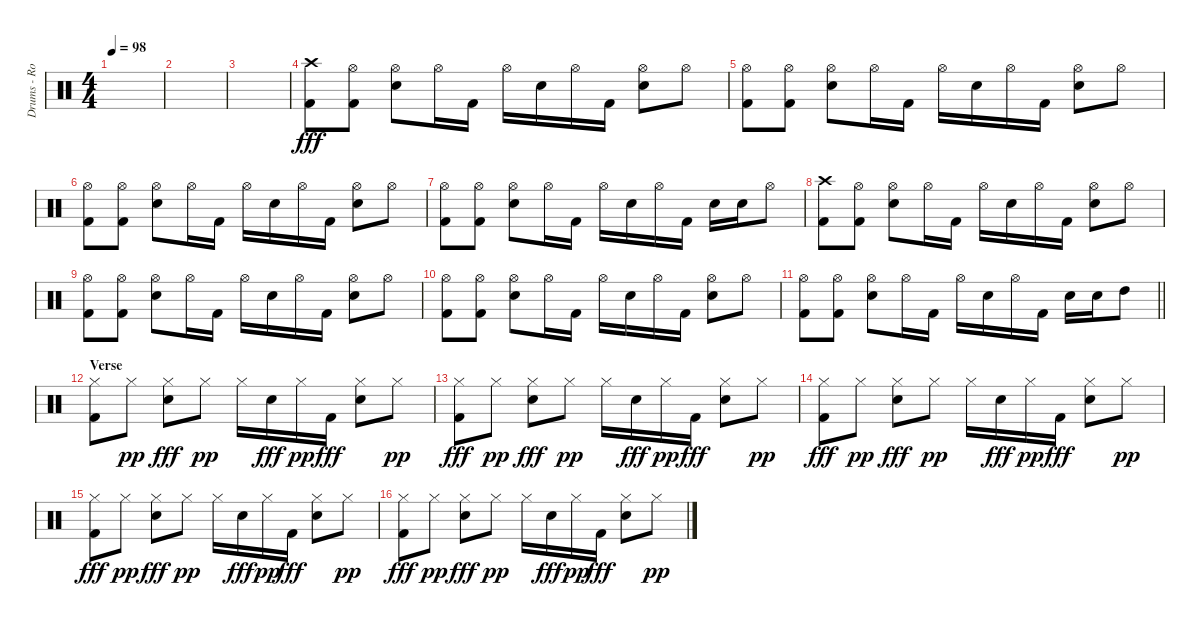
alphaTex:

\track ("Drums - Rob Bourdon" "Drums - Ro") {instrument percussion}
\staff {score}
\articulation defaults
\ts (4 4)
\tempo 98
\clef neutral
\ks c
|
|
|
("Crash high (hit)" "Kick (hit) 2").8{dy fff} ("Hi-Hat (open)" "Kick (hit) 2").8 ("Hi-Hat (open)" "Snare (hit) 2").8 "Hi-Hat (open)".16 "Kick (hit) 2".16 "Hi-Hat (open)".16 "Snare (hit) 2".16 "Hi-Hat (open)".16 "Kick (hit) 2".16 ("Hi-Hat (open)" "Snare (hit) 2").8 "Hi-Hat (open)".8 |
("Hi-Hat (open)" "Kick (hit) 2").8 ("Hi-Hat (open)" "Kick (hit) 2").8 ("Hi-Hat (open)" "Snare (hit) 2").8 "Hi-Hat (open)".16 "Kick (hit) 2".16 "Hi-Hat (open)".16 "Snare (hit) 2".16 "Hi-Hat (open)".16 "Kick (hit) 2".16 ("Hi-Hat (open)" "Snare (hit) 2").8 "Hi-Hat (open)".8 |
("Hi-Hat (open)" "Kick (hit) 2").8 ("Hi-Hat (open)" "Kick (hit) 2").8 ("Hi-Hat (open)" "Snare (hit) 2").8 "Hi-Hat (open)".16 "Kick (hit) 2".16 "Hi-Hat (open)".16 "Snare (hit) 2".16 "Hi-Hat (open)".16 "Kick (hit) 2".16 ("Hi-Hat (open)" "Snare (hit) 2").8 "Hi-Hat (open)".8 |
("Hi-Hat (open)" "Kick (hit) 2").8 ("Hi-Hat (open)" "Kick (hit) 2").8 ("Hi-Hat (open)" "Snare (hit) 2").8 "Hi-Hat (open)".16 "Kick (hit) 2".16 "Hi-Hat (open)".16 "Snare (hit) 2".16 "Hi-Hat (open)".16 "Kick (hit) 2".16 "Snare (hit) 2".16 "Snare (hit) 2".16 "Hi-Hat (open)".8 |
("Crash high (hit)" "Kick (hit) 2").8 ("Hi-Hat (open)" "Kick (hit) 2").8 ("Hi-Hat (open)" "Snare (hit) 2").8 "Hi-Hat (open)".16 "Kick (hit) 2".16 "Hi-Hat (open)".16 "Snare (hit) 2".16 "Hi-Hat (open)".16 "Kick (hit) 2".16 ("Hi-Hat (open)" "Snare (hit) 2").8 "Hi-Hat (open)".8 |
("Hi-Hat (open)" "Kick (hit) 2").8 ("Hi-Hat (open)" "Kick (hit) 2").8 ("Hi-Hat (open)" "Snare (hit) 2").8 "Hi-Hat (open)".16 "Kick (hit) 2".16 "Hi-Hat (open)".16 "Snare (hit) 2".16 "Hi-Hat (open)".16 "Kick (hit) 2".16 ("Hi-Hat (open)" "Snare (hit) 2").8 "Hi-Hat (open)".8 |
("Hi-Hat (open)" "Kick (hit) 2").8 ("Hi-Hat (open)" "Kick (hit) 2").8 ("Hi-Hat (open)" "Snare (hit) 2").8 "Hi-Hat (open)".16 "Kick (hit) 2".16 "Hi-Hat (open)".16 "Snare (hit) 2".16 "Hi-Hat (open)".16 "Kick (hit) 2".16 ("Hi-Hat (open)" "Snare (hit) 2").8 "Hi-Hat (open)".8 |
\barLineRight lightlight
("Hi-Hat (open)" "Kick (hit) 2").8 ("Hi-Hat (open)" "Kick (hit) 2").8 ("Hi-Hat (open)" "Snare (hit) 2").8 "Hi-Hat (open)".16 "Kick (hit) 2".16 "Hi-Hat (open)".16 "Snare (hit) 2".16 "Hi-Hat (open)".16 "Kick (hit) 2".16 "Snare (hit) 2".16 "Snare (hit) 2".16 "High Tom (hit)".8 |
\section ("" "Verse")
("Hi-Hat (closed)" "Kick (hit) 2").8 "Hi-Hat (closed)".8{dy pp} ("Hi-Hat (closed)" "Snare (hit) 2").8{dy fff} "Hi-Hat (closed)".8{dy pp} "Hi-Hat (closed)".16 "Snare (hit) 2".16{dy fff} "Hi-Hat (closed)".16{dy pp} "Kick (hit) 2".16{dy fff} ("Hi-Hat (closed)" "Snare (hit) 2").8 "Hi-Hat (closed)".8{dy pp} |
("Hi-Hat (closed)" "Kick (hit) 2").8{dy fff} "Hi-Hat (closed)".8{dy pp} ("Hi-Hat (closed)" "Snare (hit) 2").8{dy fff} "Hi-Hat (closed)".8{dy pp} "Hi-Hat (closed)".16 "Snare (hit) 2".16{dy fff} "Hi-Hat (closed)".16{dy pp} "Kick (hit) 2".16{dy fff} ("Hi-Hat (closed)" "Snare (hit) 2").8 "Hi-Hat (closed)".8{dy pp} |
("Hi-Hat (closed)" "Kick (hit) 2").8{dy fff} "Hi-Hat (closed)".8{dy pp} ("Hi-Hat (closed)" "Snare (hit) 2").8{dy fff} "Hi-Hat (closed)".8{dy pp} "Hi-Hat (closed)".16 "Snare (hit) 2".16{dy fff} "Hi-Hat (closed)".16{dy pp} "Kick (hit) 2".16{dy fff} ("Hi-Hat (closed)" "Snare (hit) 2").8 "Hi-Hat (closed)".8{dy pp} |
("Hi-Hat (closed)" "Kick (hit) 2").8{dy fff} "Hi-Hat (closed)".8{dy pp} ("Hi-Hat (closed)" "Snare (hit) 2").8{dy fff} "Hi-Hat (closed)".8{dy pp} "Hi-Hat (closed)".16 "Snare (hit) 2".16{dy fff} "Hi-Hat (closed)".16{dy pp} "Kick (hit) 2".16{dy fff} ("Hi-Hat (closed)" "Snare (hit) 2").8 "Hi-Hat (closed)".8{dy pp} |
("Hi-Hat (closed)" "Kick (hit) 2").8{dy fff} "Hi-Hat (closed)".8{dy pp} ("Hi-Hat (closed)" "Snare (hit) 2").8{dy fff} "Hi-Hat (closed)".8{dy pp} "Hi-Hat (closed)".16 "Snare (hit) 2".16{dy fff} "Hi-Hat (closed)".16{dy pp} "Kick (hit) 2".16{dy fff} ("Hi-Hat (closed)" "Snare (hit) 2").8 "Hi-Hat (closed)".8{dy pp}
